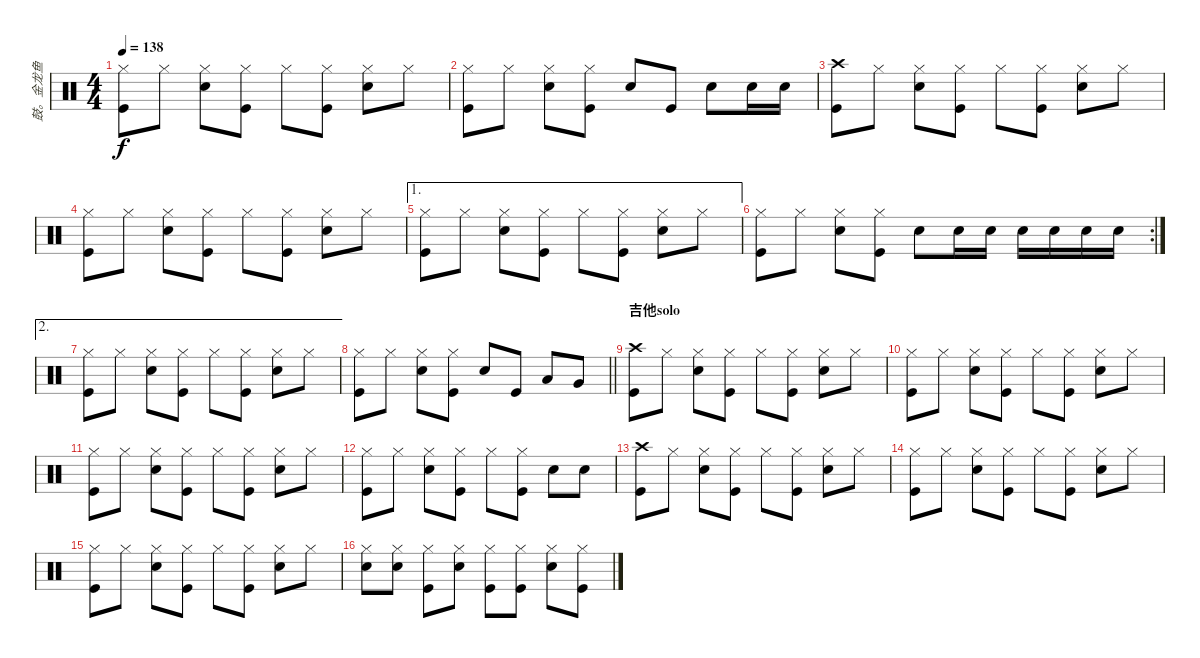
\track ("鼓。金龙鱼" "鼓。金龙鱼") {instrument percussion}
\staff {score}
\articulation defaults
\ts (4 4)
\tempo 138
\clef neutral
\ks c
("Hi-Hat (closed)" "Kick (hit)").8{dy f} "Hi-Hat (closed)".8 ("Hi-Hat (closed)" "Snare (hit) 2").8 ("Hi-Hat (closed)" "Kick (hit)").8 "Hi-Hat (closed)".8 ("Hi-Hat (closed)" "Kick (hit)").8 ("Hi-Hat (closed)" "Snare (hit) 2").8 "Hi-Hat (closed)".8 |
("Hi-Hat (closed)" "Kick (hit)").8 "Hi-Hat (closed)".8 ("Hi-Hat (closed)" "Snare (hit) 2").8 ("Hi-Hat (closed)" "Kick (hit)").8 "Snare (hit) 2".8 "Kick (hit)".8 "Snare (hit) 2".8 "Snare (hit) 2".16 "Snare (hit) 2".16 |
("Crash high (hit)" "Kick (hit)").8 "Hi-Hat (closed)".8 ("Hi-Hat (closed)" "Snare (hit) 2").8 ("Hi-Hat (closed)" "Kick (hit)").8 "Hi-Hat (closed)".8 ("Hi-Hat (closed)" "Kick (hit)").8 ("Hi-Hat (closed)" "Snare (hit) 2").8 "Hi-Hat (closed)".8 |
("Hi-Hat (closed)" "Kick (hit)").8 "Hi-Hat (closed)".8 ("Hi-Hat (closed)" "Snare (hit) 2").8 ("Hi-Hat (closed)" "Kick (hit)").8 "Hi-Hat (closed)".8 ("Hi-Hat (closed)" "Kick (hit)").8 ("Hi-Hat (closed)" "Snare (hit) 2").8 "Hi-Hat (closed)".8 |
\ae 1
("Hi-Hat (closed)" "Kick (hit)").8 "Hi-Hat (closed)".8 ("Hi-Hat (closed)" "Snare (hit) 2").8 ("Hi-Hat (closed)" "Kick (hit)").8 "Hi-Hat (closed)".8 ("Hi-Hat (closed)" "Kick (hit)").8 ("Hi-Hat (closed)" "Snare (hit) 2").8 "Hi-Hat (closed)".8 |
\rc 2
("Hi-Hat (closed)" "Kick (hit)").8 "Hi-Hat (closed)".8 ("Hi-Hat (closed)" "Snare (hit) 2").8 ("Hi-Hat (closed)" "Kick (hit)").8 "Snare (hit) 2".8 "Snare (hit) 2".16 "Snare (hit) 2".16 "Snare (hit) 2".16 "Snare (hit) 2".16 "Snare (hit) 2".16 "Snare (hit) 2".16 |
\ae 2
("Hi-Hat (closed)" "Kick (hit)").8 "Hi-Hat (closed)".8 ("Hi-Hat (closed)" "Snare (hit) 2").8 ("Hi-Hat (closed)" "Kick (hit)").8 "Hi-Hat (closed)".8 ("Hi-Hat (closed)" "Kick (hit)").8 ("Hi-Hat (closed)" "Snare (hit) 2").8 "Hi-Hat (closed)".8 |
\barLineRight lightlight
("Hi-Hat (closed)" "Kick (hit)").8 "Hi-Hat (closed)".8 ("Hi-Hat (closed)" "Snare (hit) 2").8 ("Hi-Hat (closed)" "Kick (hit)").8 "Snare (hit) 2".8 "Kick (hit)".8 "Low Tom (hit)".8 "Very Low Tom (hit)".8 |
\section ("" "吉他solo")
("Crash high (hit)" "Kick (hit)").8 "Hi-Hat (closed)".8 ("Hi-Hat (closed)" "Snare (hit) 2").8 ("Hi-Hat (closed)" "Kick (hit)").8 "Hi-Hat (closed)".8 ("Hi-Hat (closed)" "Kick (hit)").8 ("Hi-Hat (closed)" "Snare (hit) 2").8 "Hi-Hat (closed)".8 |
("Hi-Hat (closed)" "Kick (hit)").8 "Hi-Hat (closed)".8 ("Hi-Hat (closed)" "Snare (hit) 2").8 ("Hi-Hat (closed)" "Kick (hit)").8 "Hi-Hat (closed)".8 ("Hi-Hat (closed)" "Kick (hit)").8 ("Hi-Hat (closed)" "Snare (hit) 2").8 "Hi-Hat (closed)".8 |
("Hi-Hat (closed)" "Kick (hit)").8 "Hi-Hat (closed)".8 ("Hi-Hat (closed)" "Snare (hit) 2").8 ("Hi-Hat (closed)" "Kick (hit)").8 "Hi-Hat (closed)".8 ("Hi-Hat (closed)" "Kick (hit)").8 ("Hi-Hat (closed)" "Snare (hit) 2").8 "Hi-Hat (closed)".8 |
("Hi-Hat (closed)" "Kick (hit)").8 "Hi-Hat (closed)".8 ("Hi-Hat (closed)" "Snare (hit) 2").8 ("Hi-Hat (closed)" "Kick (hit)").8 "Hi-Hat (closed)".8 ("Hi-Hat (closed)" "Kick (hit)").8 "Snare (hit) 2".8 "Snare (hit) 2".8 |
("Crash high (hit)" "Kick (hit)").8 "Hi-Hat (closed)".8 ("Hi-Hat (closed)" "Snare (hit) 2").8 ("Hi-Hat (closed)" "Kick (hit)").8 "Hi-Hat (closed)".8 ("Hi-Hat (closed)" "Kick (hit)").8 ("Hi-Hat (closed)" "Snare (hit) 2").8 "Hi-Hat (closed)".8 |
("Hi-Hat (closed)" "Kick (hit)").8 "Hi-Hat (closed)".8 ("Hi-Hat (closed)" "Snare (hit) 2").8 ("Hi-Hat (closed)" "Kick (hit)").8 "Hi-Hat (closed)".8 ("Hi-Hat (closed)" "Kick (hit)").8 ("Hi-Hat (closed)" "Snare (hit) 2").8 "Hi-Hat (closed)".8 |
("Hi-Hat (closed)" "Kick (hit)").8 "Hi-Hat (closed)".8 ("Hi-Hat (closed)" "Snare (hit) 2").8 ("Hi-Hat (closed)" "Kick (hit)").8 "Hi-Hat (closed)".8 ("Hi-Hat (closed)" "Kick (hit)").8 ("Hi-Hat (closed)" "Snare (hit) 2").8 "Hi-Hat (closed)".8 |
("Hi-Hat (closed)" "Snare (hit) 2").8 ("Hi-Hat (closed)" "Snare (hit) 2").8 ("Hi-Hat (closed)" "Kick (hit)").8 ("Hi-Hat (closed)" "Snare (hit) 2").8 ("Hi-Hat (closed)" "Kick (hit)").8 ("Hi-Hat (closed)" "Kick (hit)").8 ("Hi-Hat (closed)" "Snare (hit) 2").8 ("Hi-Hat (closed)" "Kick (hit)").8
